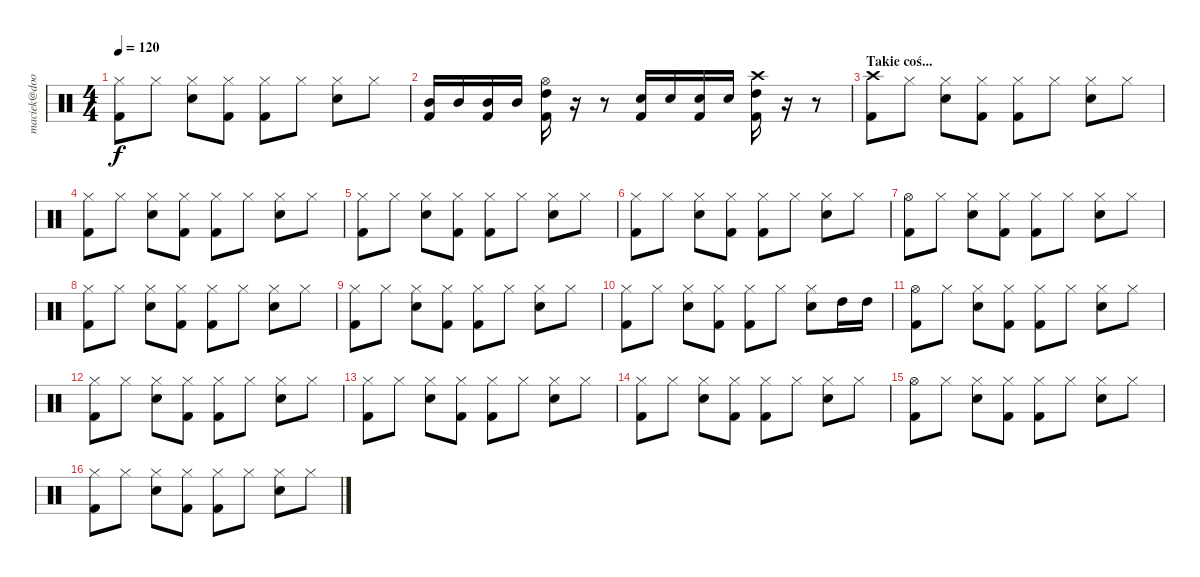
\track ("maciek@doorpol.com" "maciek@doo") {instrument percussion}
\staff {score}
\articulation defaults
\ts (4 4)
\tempo 120
\clef neutral
\ks c
("Hi-Hat (closed)" "Kick (hit) 2").8{dy f} "Hi-Hat (closed)".8 ("Hi-Hat (closed)" "Snare (hit) 2").8 ("Hi-Hat (closed)" "Kick (hit) 2").8 ("Hi-Hat (closed)" "Kick (hit) 2").8 "Hi-Hat (closed)".8 ("Hi-Hat (closed)" "Snare (hit) 2").8 "Hi-Hat (closed)".8 |
("Mid Tom (hit)" "Kick (hit) 2").16 "Mid Tom (hit)".16 ("Mid Tom (hit)" "Kick (hit) 2").16 "Mid Tom (hit)".16 ("High Tom (hit)" "Kick (hit) 2" "Hi-Hat (open)").16 r.16 r.8 ("Electric Snare (hit)" "Kick (hit) 2").16 "Electric Snare (hit)".16 ("Snare (hit) 2" "Kick (hit) 2").16 "Snare (hit) 2".16 ("High Tom (hit)" "Kick (hit) 2" "Crash high (hit)").16 r.16 r.8 |
\section ("" "Takie coś...")
("Crash high (hit)" "Kick (hit) 2").8 "Hi-Hat (closed)".8 ("Hi-Hat (closed)" "Snare (hit) 2").8 ("Hi-Hat (closed)" "Kick (hit) 2").8 ("Hi-Hat (closed)" "Kick (hit) 2").8 "Hi-Hat (closed)".8 ("Hi-Hat (closed)" "Snare (hit) 2").8 "Hi-Hat (closed)".8 |
("Hi-Hat (closed)" "Kick (hit) 2").8 "Hi-Hat (closed)".8 ("Hi-Hat (closed)" "Snare (hit) 2").8 ("Hi-Hat (closed)" "Kick (hit) 2").8 ("Hi-Hat (closed)" "Kick (hit) 2").8 "Hi-Hat (closed)".8 ("Hi-Hat (closed)" "Snare (hit) 2").8 "Hi-Hat (closed)".8 |
("Hi-Hat (closed)" "Kick (hit) 2").8 "Hi-Hat (closed)".8 ("Hi-Hat (closed)" "Snare (hit) 2").8 ("Hi-Hat (closed)" "Kick (hit) 2").8 ("Hi-Hat (closed)" "Kick (hit) 2").8 "Hi-Hat (closed)".8 ("Hi-Hat (closed)" "Snare (hit) 2").8 "Hi-Hat (closed)".8 |
("Hi-Hat (closed)" "Kick (hit) 2").8 "Hi-Hat (closed)".8 ("Hi-Hat (closed)" "Snare (hit) 2").8 ("Hi-Hat (closed)" "Kick (hit) 2").8 ("Hi-Hat (closed)" "Kick (hit) 2").8 "Hi-Hat (closed)".8 ("Hi-Hat (closed)" "Snare (hit) 2").8 "Hi-Hat (closed)".8 |
("Hi-Hat (open)" "Kick (hit) 2").8 "Hi-Hat (closed)".8 ("Hi-Hat (closed)" "Snare (hit) 2").8 ("Hi-Hat (closed)" "Kick (hit) 2").8 ("Hi-Hat (closed)" "Kick (hit) 2").8 "Hi-Hat (closed)".8 ("Hi-Hat (closed)" "Snare (hit) 2").8 "Hi-Hat (closed)".8 |
("Hi-Hat (closed)" "Kick (hit) 2").8 "Hi-Hat (closed)".8 ("Hi-Hat (closed)" "Snare (hit) 2").8 ("Hi-Hat (closed)" "Kick (hit) 2").8 ("Hi-Hat (closed)" "Kick (hit) 2").8 "Hi-Hat (closed)".8 ("Hi-Hat (closed)" "Snare (hit) 2").8 "Hi-Hat (closed)".8 |
("Hi-Hat (closed)" "Kick (hit) 2").8 "Hi-Hat (closed)".8 ("Hi-Hat (closed)" "Snare (hit) 2").8 ("Hi-Hat (closed)" "Kick (hit) 2").8 ("Hi-Hat (closed)" "Kick (hit) 2").8 "Hi-Hat (closed)".8 ("Hi-Hat (closed)" "Snare (hit) 2").8 "Hi-Hat (closed)".8 |
("Hi-Hat (closed)" "Kick (hit) 2").8 "Hi-Hat (closed)".8 ("Hi-Hat (closed)" "Snare (hit) 2").8 ("Hi-Hat (closed)" "Kick (hit) 2").8 ("Hi-Hat (closed)" "Kick (hit) 2").8 "Hi-Hat (closed)".8 ("Hi-Hat (closed)" "Snare (hit) 2").8 "High Tom (hit)".16 "High Tom (hit)".16 |
("Hi-Hat (open)" "Kick (hit) 2").8 "Hi-Hat (closed)".8 ("Hi-Hat (closed)" "Snare (hit) 2").8 ("Hi-Hat (closed)" "Kick (hit) 2").8 ("Hi-Hat (closed)" "Kick (hit) 2").8 "Hi-Hat (closed)".8 ("Hi-Hat (closed)" "Snare (hit) 2").8 "Hi-Hat (closed)".8 |
("Hi-Hat (closed)" "Kick (hit) 2").8 "Hi-Hat (closed)".8 ("Hi-Hat (closed)" "Snare (hit) 2").8 ("Hi-Hat (closed)" "Kick (hit) 2").8 ("Hi-Hat (closed)" "Kick (hit) 2").8 "Hi-Hat (closed)".8 ("Hi-Hat (closed)" "Snare (hit) 2").8 "Hi-Hat (closed)".8 |
("Hi-Hat (closed)" "Kick (hit) 2").8 "Hi-Hat (closed)".8 ("Hi-Hat (closed)" "Snare (hit) 2").8 ("Hi-Hat (closed)" "Kick (hit) 2").8 ("Hi-Hat (closed)" "Kick (hit) 2").8 "Hi-Hat (closed)".8 ("Hi-Hat (closed)" "Snare (hit) 2").8 "Hi-Hat (closed)".8 |
("Hi-Hat (closed)" "Kick (hit) 2").8 "Hi-Hat (closed)".8 ("Hi-Hat (closed)" "Snare (hit) 2").8 ("Hi-Hat (closed)" "Kick (hit) 2").8 ("Hi-Hat (closed)" "Kick (hit) 2").8 "Hi-Hat (closed)".8 ("Hi-Hat (closed)" "Snare (hit) 2").8 "Hi-Hat (closed)".8 |
("Hi-Hat (open)" "Kick (hit) 2").8 "Hi-Hat (closed)".8 ("Hi-Hat (closed)" "Snare (hit) 2").8 ("Hi-Hat (closed)" "Kick (hit) 2").8 ("Hi-Hat (closed)" "Kick (hit) 2").8 "Hi-Hat (closed)".8 ("Hi-Hat (closed)" "Snare (hit) 2").8 "Hi-Hat (closed)".8 |
("Hi-Hat (closed)" "Kick (hit) 2").8 "Hi-Hat (closed)".8 ("Hi-Hat (closed)" "Snare (hit) 2").8 ("Hi-Hat (closed)" "Kick (hit) 2").8 ("Hi-Hat (closed)" "Kick (hit) 2").8 "Hi-Hat (closed)".8 ("Hi-Hat (closed)" "Snare (hit) 2").8 "Hi-Hat (closed)".8
